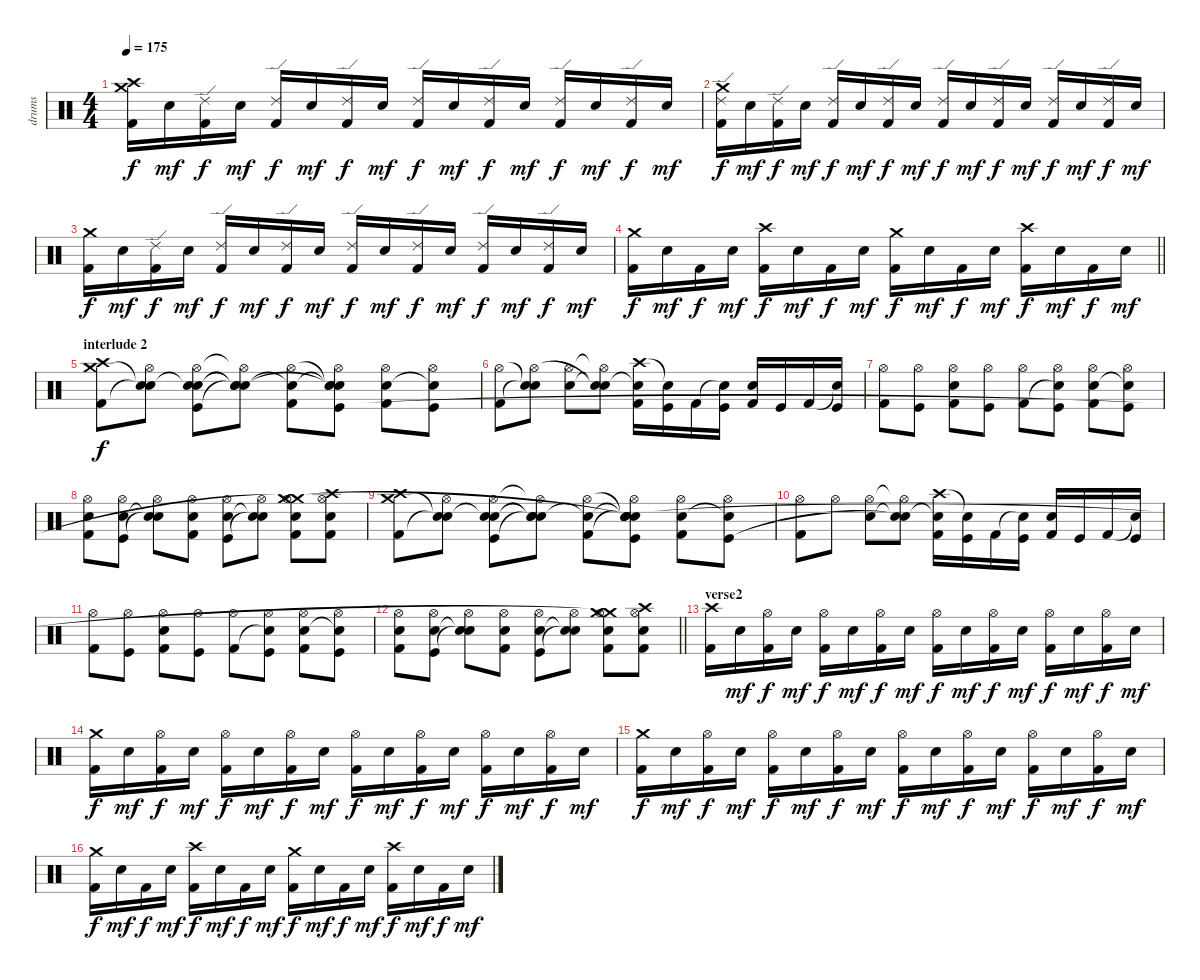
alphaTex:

\track ("drums" "drums") {instrument percussion}
\staff {score}
\articulation defaults
\ts (4 4)
\tempo 175
\clef neutral
\ks c
("Crash high (hit)" "Crash medium (hit)" "Kick (hit) 2").16{dy f} "Electric Snare (hit)".16{dy mf} ("Ride (edge) 2" "Kick (hit) 2").16{dy f} "Electric Snare (hit)".16{dy mf} ("Ride (edge) 2" "Kick (hit) 2").16{dy f} "Electric Snare (hit)".16{dy mf} ("Ride (edge) 2" "Kick (hit) 2").16{dy f} "Electric Snare (hit)".16{dy mf} ("Ride (edge) 2" "Kick (hit) 2").16{dy f} "Electric Snare (hit)".16{dy mf} ("Ride (edge) 2" "Kick (hit) 2").16{dy f} "Electric Snare (hit)".16{dy mf} ("Ride (edge) 2" "Kick (hit) 2").16{dy f} "Electric Snare (hit)".16{dy mf} ("Ride (edge) 2" "Kick (hit) 2").16{dy f} "Electric Snare (hit)".16{dy mf} |
("Crash medium (hit)" "Ride (edge) 2" "Kick (hit) 2").16{dy f} "Electric Snare (hit)".16{dy mf} ("Ride (edge) 2" "Kick (hit) 2").16{dy f} "Electric Snare (hit)".16{dy mf} ("Ride (edge) 2" "Kick (hit) 2").16{dy f} "Electric Snare (hit)".16{dy mf} ("Ride (edge) 2" "Kick (hit) 2").16{dy f} "Electric Snare (hit)".16{dy mf} ("Ride (edge) 2" "Kick (hit) 2").16{dy f} "Electric Snare (hit)".16{dy mf} ("Ride (edge) 2" "Kick (hit) 2").16{dy f} "Electric Snare (hit)".16{dy mf} ("Ride (edge) 2" "Kick (hit) 2").16{dy f} "Electric Snare (hit)".16{dy mf} ("Ride (edge) 2" "Kick (hit) 2").16{dy f} "Electric Snare (hit)".16{dy mf} |
("Crash medium (hit)" "Kick (hit) 2").16{dy f} "Electric Snare (hit)".16{dy mf} ("Ride (edge) 2" "Kick (hit) 2").16{dy f} "Electric Snare (hit)".16{dy mf} ("Ride (edge) 2" "Kick (hit) 2").16{dy f} "Electric Snare (hit)".16{dy mf} ("Ride (edge) 2" "Kick (hit) 2").16{dy f} "Electric Snare (hit)".16{dy mf} ("Ride (edge) 2" "Kick (hit) 2").16{dy f} "Electric Snare (hit)".16{dy mf} ("Ride (edge) 2" "Kick (hit) 2").16{dy f} "Electric Snare (hit)".16{dy mf} ("Ride (edge) 2" "Kick (hit) 2").16{dy f} "Electric Snare (hit)".16{dy mf} ("Ride (edge) 2" "Kick (hit) 2").16{dy f} "Electric Snare (hit)".16{dy mf} |
\barLineRight lightlight
("Crash medium (hit)" "Kick (hit) 2").16{dy f} "Electric Snare (hit)".16{dy mf} "Kick (hit) 2".16{dy f} "Electric Snare (hit)".16{dy mf} ("Crash high (hit)" "Kick (hit) 2").16{dy f} "Electric Snare (hit)".16{dy mf} "Kick (hit) 2".16{dy f} "Electric Snare (hit)".16{dy mf} ("Crash medium (hit)" "Kick (hit) 2").16{dy f} "Electric Snare (hit)".16{dy mf} "Kick (hit) 2".16{dy f} "Electric Snare (hit)".16{dy mf} ("Crash high (hit)" "Kick (hit) 2").16{dy f} "Electric Snare (hit)".16{dy mf} "Kick (hit) 2".16{dy f} "Electric Snare (hit)".16{dy mf} |
\section ("" "interlude 2")
("Crash medium (hit)" "Crash high (hit)" "Kick (hit) 2").8{dy f} ("Snare (hit)"{t} "Hi-Hat (open)" "Snare (hit)"{t}).8 ("Snare (hit)"{t} "Hi-Hat (open)" "Snare (hit) 2" "Kick (hit)").8 ("Snare (hit)"{t} "Hi-Hat (open)"{t} "Snare (hit)"{t} "Snare (hit)"{t}).8 ("Snare (hit)"{t} "Hi-Hat (open)" "Kick (hit) 2").8 ("Snare (hit)"{t} "Snare (hit)"{t} "Hi-Hat (open)" "Snare (hit)"{t} "Kick (hit)").8 ("Hi-Hat (open)" "Snare (hit) 2" "Kick (hit) 2").8 ("Hi-Hat (open)" "Snare (hit)"{t} "Kick (hit)").8 |
("Hi-Hat (open)" "Kick (hit) 2").8 ("Snare (hit)"{t} "Snare (hit)"{t} "Hi-Hat (open)").8 ("Hi-Hat (open)" "Snare (hit) 2").8 ("Hi-Hat (open)"{t} "Snare (hit)"{t} "Snare (hit)"{t}).8 ("Crash high (hit)" "Snare (hit)"{t} "Kick (hit) 2").16 ("Snare (hit)"{t} "Kick (hit)").16 "Kick (hit) 2".16 ("Snare (hit)"{t} "Kick (hit)").16 ("Snare (hit) 2" "Kick (hit) 2").16 "Kick (hit)".16 "Kick (hit) 2".16 ("Snare (hit)"{t} "Kick (hit)").16 |
("Hi-Hat (open)" "Kick (hit) 2").8 ("Hi-Hat (open)" "Kick (hit)").8 ("Hi-Hat (open)" "Snare (hit) 2" "Kick (hit) 2").8 ("Hi-Hat (open)" "Kick (hit)").8 ("Hi-Hat (open)" "Kick (hit) 2").8 ("Hi-Hat (open)" "Snare (hit)"{t} "Kick (hit)").8 ("Hi-Hat (open)" "Snare (hit) 2" "Kick (hit) 2").8 ("Hi-Hat (open)" "Snare (hit)"{t} "Kick (hit)").8 |
("Hi-Hat (open)" "Snare (hit) 2" "Kick (hit) 2").8 ("Hi-Hat (open)" "Snare (hit) 2" "Kick (hit)").8 ("Hi-Hat (open)" "Snare (hit)"{t} "Snare (hit)"{t}).8 ("Hi-Hat (open)" "Snare (hit) 2" "Kick (hit) 2").8 ("Hi-Hat (open)" "Snare (hit) 2" "Kick (hit)").8 ("Hi-Hat (open)" "Snare (hit)"{t} "Snare (hit)"{t}).8 ("Crash medium (hit)" "Kick (hit) 2" "Hi-Hat (open)" "Snare (hit) 2" "Crash medium (hit)"{t}).8 ("Crash high (hit)" "Kick (hit) 2" "Hi-Hat (open)" "Snare (hit) 2").8 |
("Crash medium (hit)" "Crash high (hit)" "Kick (hit) 2").8 ("Snare (hit)"{t} "Hi-Hat (open)" "Snare (hit)"{t}).8 ("Snare (hit)"{t} "Hi-Hat (open)" "Snare (hit) 2" "Kick (hit)").8 ("Snare (hit)"{t} "Hi-Hat (open)"{t} "Snare (hit)"{t} "Snare (hit)"{t}).8 ("Snare (hit)"{t} "Hi-Hat (open)" "Kick (hit) 2").8 ("Snare (hit)"{t} "Snare (hit)"{t} "Snare (hit)"{t} "Hi-Hat (open)" "Snare (hit)"{t} "Kick (hit)").8 ("Hi-Hat (open)" "Snare (hit) 2" "Kick (hit) 2").8 ("Hi-Hat (open)" "Snare (hit)"{t} "Kick (hit)").8 |
("Hi-Hat (open)" "Kick (hit) 2").8 "Hi-Hat (open)".8 ("Hi-Hat (open)" "Snare (hit) 2").8 ("Hi-Hat (open)"{t} "Snare (hit)"{t} "Snare (hit)"{t}).8 ("Crash high (hit)" "Snare (hit)"{t} "Kick (hit) 2").16 ("Snare (hit)"{t} "Kick (hit)").16 "Kick (hit) 2".16 ("Snare (hit)"{t} "Kick (hit)").16 ("Snare (hit) 2" "Kick (hit) 2").16 "Kick (hit)".16 "Kick (hit) 2".16 ("Snare (hit)"{t} "Kick (hit)").16 |
("Hi-Hat (open)" "Kick (hit) 2").8 ("Hi-Hat (open)" "Kick (hit)").8 ("Hi-Hat (open)" "Snare (hit) 2" "Kick (hit) 2").8 ("Hi-Hat (open)" "Kick (hit)").8 ("Hi-Hat (open)" "Kick (hit) 2").8 ("Hi-Hat (open)" "Snare (hit)"{t} "Kick (hit)").8 ("Hi-Hat (open)" "Snare (hit) 2" "Kick (hit) 2").8 ("Hi-Hat (open)" "Snare (hit)"{t} "Kick (hit)").8 |
\barLineRight lightlight
("Hi-Hat (open)" "Snare (hit) 2" "Kick (hit) 2").8 ("Hi-Hat (open)" "Snare (hit) 2" "Kick (hit)").8 ("Hi-Hat (open)" "Snare (hit)"{t} "Snare (hit)"{t}).8 ("Hi-Hat (open)" "Snare (hit) 2" "Kick (hit) 2").8 ("Hi-Hat (open)" "Snare (hit) 2" "Kick (hit)").8 ("Hi-Hat (open)" "Snare (hit)"{t} "Snare (hit)"{t}).8 ("Crash medium (hit)" "Kick (hit) 2" "Hi-Hat (open)" "Snare (hit) 2" "Crash medium (hit)"{t}).8 ("Crash high (hit)" "Kick (hit) 2" "Hi-Hat (open)" "Snare (hit) 2").8 |
\section ("" "verse2")
("Crash high (hit)" "Kick (hit) 2").16 "Electric Snare (hit)".16{dy mf} ("Hi-Hat (open)" "Kick (hit) 2").16{dy f} "Electric Snare (hit)".16{dy mf} ("Hi-Hat (open)" "Kick (hit) 2").16{dy f} "Electric Snare (hit)".16{dy mf} ("Hi-Hat (open)" "Kick (hit) 2").16{dy f} "Electric Snare (hit)".16{dy mf} ("Hi-Hat (open)" "Kick (hit) 2").16{dy f} "Electric Snare (hit)".16{dy mf} ("Hi-Hat (open)" "Kick (hit) 2").16{dy f} "Electric Snare (hit)".16{dy mf} ("Hi-Hat (open)" "Kick (hit) 2").16{dy f} "Electric Snare (hit)".16{dy mf} ("Hi-Hat (open)" "Kick (hit) 2").16{dy f} "Electric Snare (hit)".16{dy mf} |
("Crash medium (hit)" "Kick (hit) 2").16{dy f} "Electric Snare (hit)".16{dy mf} ("Hi-Hat (open)" "Kick (hit) 2").16{dy f} "Electric Snare (hit)".16{dy mf} ("Hi-Hat (open)" "Kick (hit) 2").16{dy f} "Electric Snare (hit)".16{dy mf} ("Hi-Hat (open)" "Kick (hit) 2").16{dy f} "Electric Snare (hit)".16{dy mf} ("Hi-Hat (open)" "Kick (hit) 2").16{dy f} "Electric Snare (hit)".16{dy mf} ("Hi-Hat (open)" "Kick (hit) 2").16{dy f} "Electric Snare (hit)".16{dy mf} ("Hi-Hat (open)" "Kick (hit) 2").16{dy f} "Electric Snare (hit)".16{dy mf} ("Hi-Hat (open)" "Kick (hit) 2").16{dy f} "Electric Snare (hit)".16{dy mf} |
("Crash medium (hit)" "Kick (hit) 2").16{dy f} "Electric Snare (hit)".16{dy mf} ("Hi-Hat (open)" "Kick (hit) 2").16{dy f} "Electric Snare (hit)".16{dy mf} ("Hi-Hat (open)" "Kick (hit) 2").16{dy f} "Electric Snare (hit)".16{dy mf} ("Hi-Hat (open)" "Kick (hit) 2").16{dy f} "Electric Snare (hit)".16{dy mf} ("Hi-Hat (open)" "Kick (hit) 2").16{dy f} "Electric Snare (hit)".16{dy mf} ("Hi-Hat (open)" "Kick (hit) 2").16{dy f} "Electric Snare (hit)".16{dy mf} ("Hi-Hat (open)" "Kick (hit) 2").16{dy f} "Electric Snare (hit)".16{dy mf} ("Hi-Hat (open)" "Kick (hit) 2").16{dy f} "Electric Snare (hit)".16{dy mf} |
("Crash medium (hit)" "Kick (hit) 2").16{dy f} "Electric Snare (hit)".16{dy mf} "Kick (hit) 2".16{dy f} "Electric Snare (hit)".16{dy mf} ("Crash high (hit)" "Kick (hit) 2").16{dy f} "Electric Snare (hit)".16{dy mf} "Kick (hit) 2".16{dy f} "Electric Snare (hit)".16{dy mf} ("Crash medium (hit)" "Kick (hit) 2").16{dy f} "Electric Snare (hit)".16{dy mf} "Kick (hit) 2".16{dy f} "Electric Snare (hit)".16{dy mf} ("Crash high (hit)" "Kick (hit) 2").16{dy f} "Electric Snare (hit)".16{dy mf} "Kick (hit) 2".16{dy f} "Electric Snare (hit)".16{dy mf}
